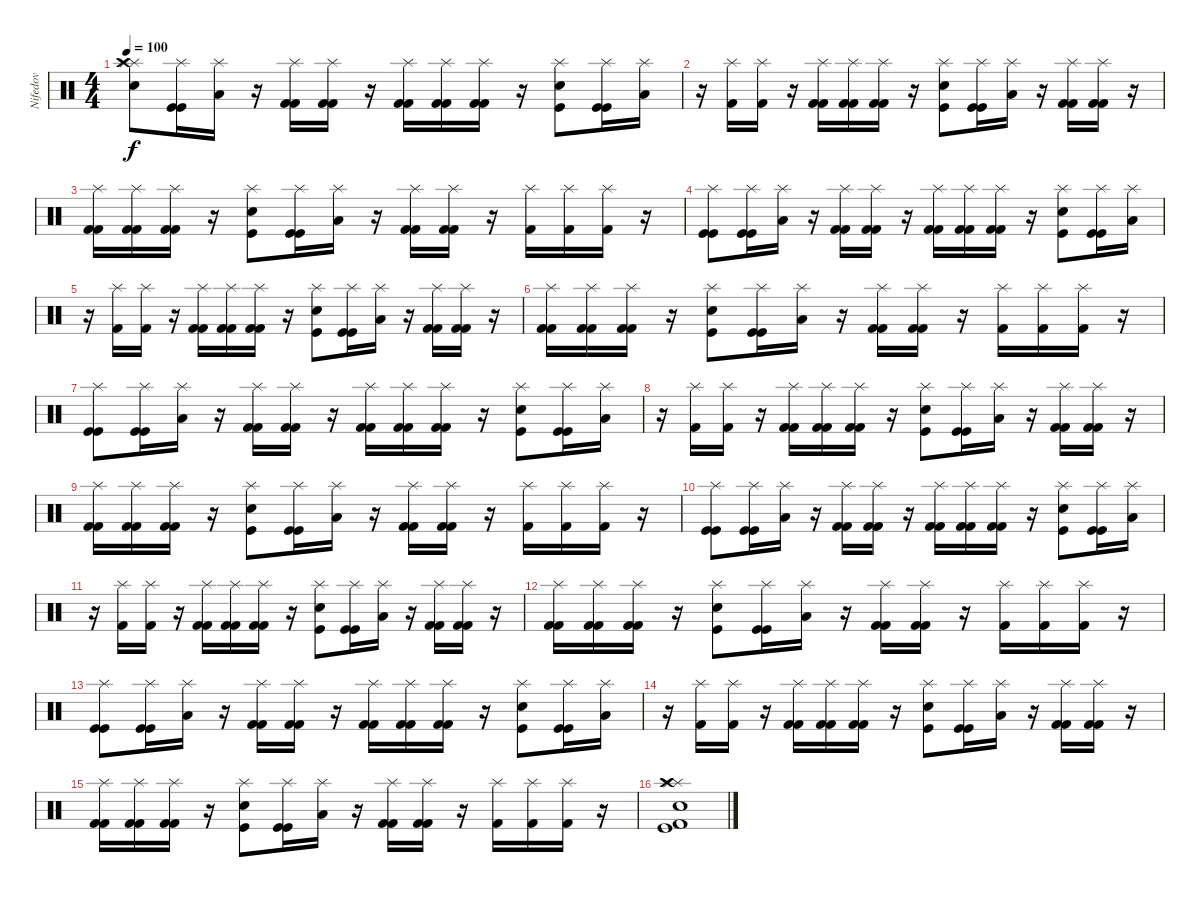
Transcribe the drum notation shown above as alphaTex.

\track ("Nifedov" "Nifedov") {instrument percussion}
\staff {score}
\articulation defaults
\ts (4 4)
\tempo 100
\clef neutral
\ks c
("Splash (hit)" "Snare (hit) 2" "Crash high (hit)" "Splash (hit)").8{dy f} ("Kick (hit)" "Kick (hit)" "Splash (hit)").16 ("Low Tom (hit)" "Splash (hit)").16 r.16 ("Kick (hit) 2" "Kick (hit) 2" "Splash (hit)").16 ("Kick (hit) 2" "Kick (hit) 2" "Splash (hit)").16 r.16 ("Kick (hit) 2" "Kick (hit) 2" "Splash (hit)").16 ("Kick (hit) 2" "Kick (hit) 2" "Splash (hit)").16 ("Kick (hit) 2" "Kick (hit) 2" "Splash (hit)").16 r.16 ("Snare (hit) 2" "Kick (hit)" "Splash (hit)").8 ("Kick (hit)" "Kick (hit)" "Splash (hit)").16 ("Low Tom (hit)" "Splash (hit)").16 |
r.16 ("Kick (hit) 2" "Splash (hit)").16 ("Kick (hit) 2" "Splash (hit)").16 r.16 ("Kick (hit) 2" "Kick (hit) 2" "Splash (hit)").16 ("Kick (hit) 2" "Kick (hit) 2" "Splash (hit)").16 ("Kick (hit) 2" "Kick (hit) 2" "Splash (hit)").16 r.16 ("Kick (hit)" "Snare (hit) 2" "Splash (hit)").8 ("Kick (hit)" "Kick (hit)" "Splash (hit)").16 ("Low Tom (hit)" "Splash (hit)").16 r.16 ("Kick (hit) 2" "Kick (hit) 2" "Splash (hit)").16 ("Kick (hit) 2" "Kick (hit) 2" "Splash (hit)").16 r.16 |
("Kick (hit) 2" "Kick (hit) 2" "Splash (hit)").16 ("Kick (hit) 2" "Kick (hit) 2" "Splash (hit)").16 ("Kick (hit) 2" "Kick (hit) 2" "Splash (hit)").16 r.16 ("Snare (hit) 2" "Kick (hit)" "Splash (hit)").8 ("Kick (hit)" "Kick (hit)" "Splash (hit)").16 ("Low Tom (hit)" "Splash (hit)").16 r.16 ("Kick (hit) 2" "Kick (hit) 2" "Splash (hit)").16 ("Kick (hit) 2" "Kick (hit) 2" "Splash (hit)").16 r.16 ("Kick (hit) 2" "Splash (hit)").16 ("Kick (hit) 2" "Splash (hit)").16 ("Kick (hit) 2" "Splash (hit)").16 r.16 |
("Kick (hit)" "Kick (hit)" "Splash (hit)").8 ("Kick (hit)" "Kick (hit)" "Splash (hit)").16 ("Low Tom (hit)" "Splash (hit)").16 r.16 ("Kick (hit) 2" "Kick (hit) 2" "Splash (hit)").16 ("Kick (hit) 2" "Kick (hit) 2" "Splash (hit)").16 r.16 ("Kick (hit) 2" "Kick (hit) 2" "Splash (hit)").16 ("Kick (hit) 2" "Kick (hit) 2" "Splash (hit)").16 ("Kick (hit) 2" "Kick (hit) 2" "Splash (hit)").16 r.16 ("Snare (hit) 2" "Kick (hit)" "Splash (hit)").8 ("Kick (hit)" "Kick (hit)" "Splash (hit)").16 ("Low Tom (hit)" "Splash (hit)").16 |
r.16 ("Kick (hit) 2" "Splash (hit)").16 ("Kick (hit) 2" "Splash (hit)").16 r.16 ("Kick (hit) 2" "Kick (hit) 2" "Splash (hit)").16 ("Kick (hit) 2" "Kick (hit) 2" "Splash (hit)").16 ("Kick (hit) 2" "Kick (hit) 2" "Splash (hit)").16 r.16 ("Kick (hit)" "Snare (hit) 2" "Splash (hit)").8 ("Kick (hit)" "Kick (hit)" "Splash (hit)").16 ("Low Tom (hit)" "Splash (hit)").16 r.16 ("Kick (hit) 2" "Kick (hit) 2" "Splash (hit)").16 ("Kick (hit) 2" "Kick (hit) 2" "Splash (hit)").16 r.16 |
("Kick (hit) 2" "Kick (hit) 2" "Splash (hit)").16 ("Kick (hit) 2" "Kick (hit) 2" "Splash (hit)").16 ("Kick (hit) 2" "Kick (hit) 2" "Splash (hit)").16 r.16 ("Snare (hit) 2" "Kick (hit)" "Splash (hit)").8 ("Kick (hit)" "Kick (hit)" "Splash (hit)").16 ("Low Tom (hit)" "Splash (hit)").16 r.16 ("Kick (hit) 2" "Kick (hit) 2" "Splash (hit)").16 ("Kick (hit) 2" "Kick (hit) 2" "Splash (hit)").16 r.16 ("Kick (hit) 2" "Splash (hit)").16 ("Kick (hit) 2" "Splash (hit)").16 ("Kick (hit) 2" "Splash (hit)").16 r.16 |
("Kick (hit)" "Kick (hit)" "Splash (hit)").8 ("Kick (hit)" "Kick (hit)" "Splash (hit)").16 ("Low Tom (hit)" "Splash (hit)").16 r.16 ("Kick (hit) 2" "Kick (hit) 2" "Splash (hit)").16 ("Kick (hit) 2" "Kick (hit) 2" "Splash (hit)").16 r.16 ("Kick (hit) 2" "Kick (hit) 2" "Splash (hit)").16 ("Kick (hit) 2" "Kick (hit) 2" "Splash (hit)").16 ("Kick (hit) 2" "Kick (hit) 2" "Splash (hit)").16 r.16 ("Snare (hit) 2" "Kick (hit)" "Splash (hit)").8 ("Kick (hit)" "Kick (hit)" "Splash (hit)").16 ("Low Tom (hit)" "Splash (hit)").16 |
r.16 ("Kick (hit) 2" "Splash (hit)").16 ("Kick (hit) 2" "Splash (hit)").16 r.16 ("Kick (hit) 2" "Kick (hit) 2" "Splash (hit)").16 ("Kick (hit) 2" "Kick (hit) 2" "Splash (hit)").16 ("Kick (hit) 2" "Kick (hit) 2" "Splash (hit)").16 r.16 ("Kick (hit)" "Snare (hit) 2" "Splash (hit)").8 ("Kick (hit)" "Kick (hit)" "Splash (hit)").16 ("Low Tom (hit)" "Splash (hit)").16 r.16 ("Kick (hit) 2" "Kick (hit) 2" "Splash (hit)").16 ("Kick (hit) 2" "Kick (hit) 2" "Splash (hit)").16 r.16 |
("Kick (hit) 2" "Kick (hit) 2" "Splash (hit)").16 ("Kick (hit) 2" "Kick (hit) 2" "Splash (hit)").16 ("Kick (hit) 2" "Kick (hit) 2" "Splash (hit)").16 r.16 ("Snare (hit) 2" "Kick (hit)" "Splash (hit)").8 ("Kick (hit)" "Kick (hit)" "Splash (hit)").16 ("Low Tom (hit)" "Splash (hit)").16 r.16 ("Kick (hit) 2" "Kick (hit) 2" "Splash (hit)").16 ("Kick (hit) 2" "Kick (hit) 2" "Splash (hit)").16 r.16 ("Kick (hit) 2" "Splash (hit)").16 ("Kick (hit) 2" "Splash (hit)").16 ("Kick (hit) 2" "Splash (hit)").16 r.16 |
("Kick (hit)" "Kick (hit)" "Splash (hit)").8 ("Kick (hit)" "Kick (hit)" "Splash (hit)").16 ("Low Tom (hit)" "Splash (hit)").16 r.16 ("Kick (hit) 2" "Kick (hit) 2" "Splash (hit)").16 ("Kick (hit) 2" "Kick (hit) 2" "Splash (hit)").16 r.16 ("Kick (hit) 2" "Kick (hit) 2" "Splash (hit)").16 ("Kick (hit) 2" "Kick (hit) 2" "Splash (hit)").16 ("Kick (hit) 2" "Kick (hit) 2" "Splash (hit)").16 r.16 ("Snare (hit) 2" "Kick (hit)" "Splash (hit)").8 ("Kick (hit)" "Kick (hit)" "Splash (hit)").16 ("Low Tom (hit)" "Splash (hit)").16 |
r.16 ("Kick (hit) 2" "Splash (hit)").16 ("Kick (hit) 2" "Splash (hit)").16 r.16 ("Kick (hit) 2" "Kick (hit) 2" "Splash (hit)").16 ("Kick (hit) 2" "Kick (hit) 2" "Splash (hit)").16 ("Kick (hit) 2" "Kick (hit) 2" "Splash (hit)").16 r.16 ("Kick (hit)" "Snare (hit) 2" "Splash (hit)").8 ("Kick (hit)" "Kick (hit)" "Splash (hit)").16 ("Low Tom (hit)" "Splash (hit)").16 r.16 ("Kick (hit) 2" "Kick (hit) 2" "Splash (hit)").16 ("Kick (hit) 2" "Kick (hit) 2" "Splash (hit)").16 r.16 |
("Kick (hit) 2" "Kick (hit) 2" "Splash (hit)").16 ("Kick (hit) 2" "Kick (hit) 2" "Splash (hit)").16 ("Kick (hit) 2" "Kick (hit) 2" "Splash (hit)").16 r.16 ("Snare (hit) 2" "Kick (hit)" "Splash (hit)").8 ("Kick (hit)" "Kick (hit)" "Splash (hit)").16 ("Low Tom (hit)" "Splash (hit)").16 r.16 ("Kick (hit) 2" "Kick (hit) 2" "Splash (hit)").16 ("Kick (hit) 2" "Kick (hit) 2" "Splash (hit)").16 r.16 ("Kick (hit) 2" "Splash (hit)").16 ("Kick (hit) 2" "Splash (hit)").16 ("Kick (hit) 2" "Splash (hit)").16 r.16 |
("Kick (hit)" "Kick (hit)" "Splash (hit)").8 ("Kick (hit)" "Kick (hit)" "Splash (hit)").16 ("Low Tom (hit)" "Splash (hit)").16 r.16 ("Kick (hit) 2" "Kick (hit) 2" "Splash (hit)").16 ("Kick (hit) 2" "Kick (hit) 2" "Splash (hit)").16 r.16 ("Kick (hit) 2" "Kick (hit) 2" "Splash (hit)").16 ("Kick (hit) 2" "Kick (hit) 2" "Splash (hit)").16 ("Kick (hit) 2" "Kick (hit) 2" "Splash (hit)").16 r.16 ("Snare (hit) 2" "Kick (hit)" "Splash (hit)").8 ("Kick (hit)" "Kick (hit)" "Splash (hit)").16 ("Low Tom (hit)" "Splash (hit)").16 |
r.16 ("Kick (hit) 2" "Splash (hit)").16 ("Kick (hit) 2" "Splash (hit)").16 r.16 ("Kick (hit) 2" "Kick (hit) 2" "Splash (hit)").16 ("Kick (hit) 2" "Kick (hit) 2" "Splash (hit)").16 ("Kick (hit) 2" "Kick (hit) 2" "Splash (hit)").16 r.16 ("Kick (hit)" "Snare (hit) 2" "Splash (hit)").8 ("Kick (hit)" "Kick (hit)" "Splash (hit)").16 ("Low Tom (hit)" "Splash (hit)").16 r.16 ("Kick (hit) 2" "Kick (hit) 2" "Splash (hit)").16 ("Kick (hit) 2" "Kick (hit) 2" "Splash (hit)").16 r.16 |
("Kick (hit) 2" "Kick (hit) 2" "Splash (hit)").16 ("Kick (hit) 2" "Kick (hit) 2" "Splash (hit)").16 ("Kick (hit) 2" "Kick (hit) 2" "Splash (hit)").16 r.16 ("Snare (hit) 2" "Kick (hit)" "Splash (hit)").8 ("Kick (hit)" "Kick (hit)" "Splash (hit)").16 ("Low Tom (hit)" "Splash (hit)").16 r.16 ("Kick (hit) 2" "Kick (hit) 2" "Splash (hit)").16 ("Kick (hit) 2" "Kick (hit) 2" "Splash (hit)").16 r.16 ("Kick (hit) 2" "Splash (hit)").16 ("Kick (hit) 2" "Splash (hit)").16 ("Kick (hit) 2" "Splash (hit)").16 r.16 |
("Snare (hit) 2" "Kick (hit) 2" "Kick (hit)" "Splash (hit)" "Crash high (hit)" "Splash (hit)").1
